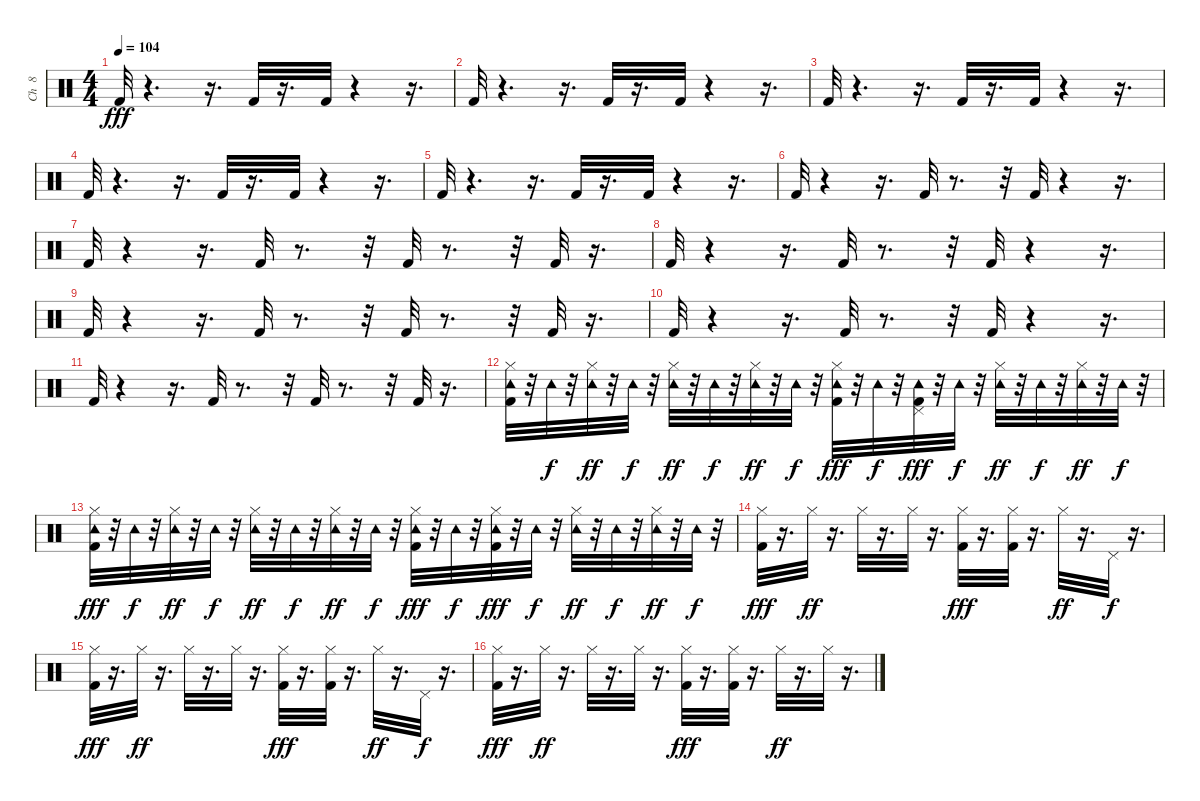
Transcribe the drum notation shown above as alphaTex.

\track ("Ch  8   " "Ch  8   ") {instrument percussion}
\staff {score}
\articulation defaults
\ts (4 4)
\tempo 104
\clef neutral
\ks c "Kick (hit) 2".32{dy fff}
r.4{d} r.16{d} "Kick (hit) 2".32 r.16{d} "Kick (hit) 2".32 r.4 r.16{d} |
"Kick (hit) 2".32 r.4{d} r.16{d} "Kick (hit) 2".32 r.16{d} "Kick (hit) 2".32 r.4 r.16{d} |
"Kick (hit) 2".32 r.4{d} r.16{d} "Kick (hit) 2".32 r.16{d} "Kick (hit) 2".32 r.4 r.16{d} |
"Kick (hit) 2".32 r.4{d} r.16{d} "Kick (hit) 2".32 r.16{d} "Kick (hit) 2".32 r.4 r.16{d} |
"Kick (hit) 2".32 r.4{d} r.16{d} "Kick (hit) 2".32 r.16{d} "Kick (hit) 2".32 r.4 r.16{d} |
"Kick (hit) 2".32 r.4 r.16{d} "Kick (hit) 2".32 r.8{d} r.32 "Kick (hit) 2".32 r.4 r.16{d} |
"Kick (hit) 2".32 r.4 r.16{d} "Kick (hit) 2".32 r.8{d} r.32 "Kick (hit) 2".32 r.8{d} r.32 "Kick (hit) 2".32 r.16{d} |
"Kick (hit) 2".32 r.4 r.16{d} "Kick (hit) 2".32 r.8{d} r.32 "Kick (hit) 2".32 r.4 r.16{d} |
"Kick (hit) 2".32 r.4 r.16{d} "Kick (hit) 2".32 r.8{d} r.32 "Kick (hit) 2".32 r.8{d} r.32 "Kick (hit) 2".32 r.16{d} |
"Kick (hit) 2".32 r.4 r.16{d} "Kick (hit) 2".32 r.8{d} r.32 "Kick (hit) 2".32 r.4 r.16{d} |
"Kick (hit) 2".32 r.4 r.16{d} "Kick (hit) 2".32 r.8{d} r.32 "Kick (hit) 2".32 r.8{d} r.32 "Kick (hit) 2".32 r.16{d} |
("Tambourine (hit)" "Hi-Hat (closed)" "Kick (hit) 2").32 r.32 "Tambourine (hit)".32{dy f} r.32 ("Tambourine (hit)" "Hi-Hat (closed)").32{dy ff} r.32 "Tambourine (hit)".32{dy f} r.32 ("Tambourine (hit)" "Hi-Hat (closed)").32{dy ff} r.32 "Tambourine (hit)".32{dy f} r.32 ("Tambourine (hit)" "Hi-Hat (closed)").32{dy ff} r.32 "Tambourine (hit)".32{dy f} r.32 ("Tambourine (hit)" "Hi-Hat (closed)" "Kick (hit) 2").32{dy fff} r.32 "Tambourine (hit)".32{dy f} r.32 ("Pedal Hi-Hat (hit)" "Tambourine (hit)" "Kick (hit) 2").32{dy fff} r.32 "Tambourine (hit)".32{dy f} r.32 ("Tambourine (hit)" "Hi-Hat (closed)").32{dy ff} r.32 "Tambourine (hit)".32{dy f} r.32 ("Tambourine (hit)" "Hi-Hat (closed)").32{dy ff} r.32 "Tambourine (hit)".32{dy f} r.32 |
("Tambourine (hit)" "Hi-Hat (closed)" "Kick (hit) 2").32{dy fff} r.32 "Tambourine (hit)".32{dy f} r.32 ("Tambourine (hit)" "Hi-Hat (closed)").32{dy ff} r.32 "Tambourine (hit)".32{dy f} r.32 ("Tambourine (hit)" "Hi-Hat (closed)").32{dy ff} r.32 "Tambourine (hit)".32{dy f} r.32 ("Tambourine (hit)" "Hi-Hat (closed)").32{dy ff} r.32 "Tambourine (hit)".32{dy f} r.32 ("Tambourine (hit)" "Hi-Hat (closed)" "Kick (hit) 2").32{dy fff} r.32 "Tambourine (hit)".32{dy f} r.32 ("Tambourine (hit)" "Hi-Hat (closed)" "Kick (hit) 2").32{dy fff} r.32 "Tambourine (hit)".32{dy f} r.32 ("Tambourine (hit)" "Hi-Hat (closed)").32{dy ff} r.32 "Tambourine (hit)".32{dy f} r.32 ("Tambourine (hit)" "Hi-Hat (closed)").32{dy ff} r.32 "Tambourine (hit)".32{dy f} r.32 |
("Hi-Hat (closed)" "Kick (hit) 2").32{dy fff} r.16{d} "Hi-Hat (closed)".32{dy ff} r.16{d} "Hi-Hat (closed)".32 r.16{d} "Hi-Hat (closed)".32 r.16{d} ("Hi-Hat (closed)" "Kick (hit) 2").32{dy fff} r.16{d} ("Hi-Hat (closed)" "Kick (hit) 2").32 r.16{d} "Hi-Hat (closed)".32{dy ff} r.16{d} "Pedal Hi-Hat (hit)".32{dy f} r.16{d} |
("Hi-Hat (closed)" "Kick (hit) 2").32{dy fff} r.16{d} "Hi-Hat (closed)".32{dy ff} r.16{d} "Hi-Hat (closed)".32 r.16{d} "Hi-Hat (closed)".32 r.16{d} ("Hi-Hat (closed)" "Kick (hit) 2").32{dy fff} r.16{d} ("Hi-Hat (closed)" "Kick (hit) 2").32 r.16{d} "Hi-Hat (closed)".32{dy ff} r.16{d} "Pedal Hi-Hat (hit)".32{dy f} r.16{d} |
("Hi-Hat (closed)" "Kick (hit) 2").32{dy fff} r.16{d} "Hi-Hat (closed)".32{dy ff} r.16{d} "Hi-Hat (closed)".32 r.16{d} "Hi-Hat (closed)".32 r.16{d} ("Hi-Hat (closed)" "Kick (hit) 2").32{dy fff} r.16{d} ("Hi-Hat (closed)" "Kick (hit) 2").32 r.16{d} "Hi-Hat (closed)".32{dy ff} r.16{d} "Hi-Hat (closed)".32 r.16{d}
